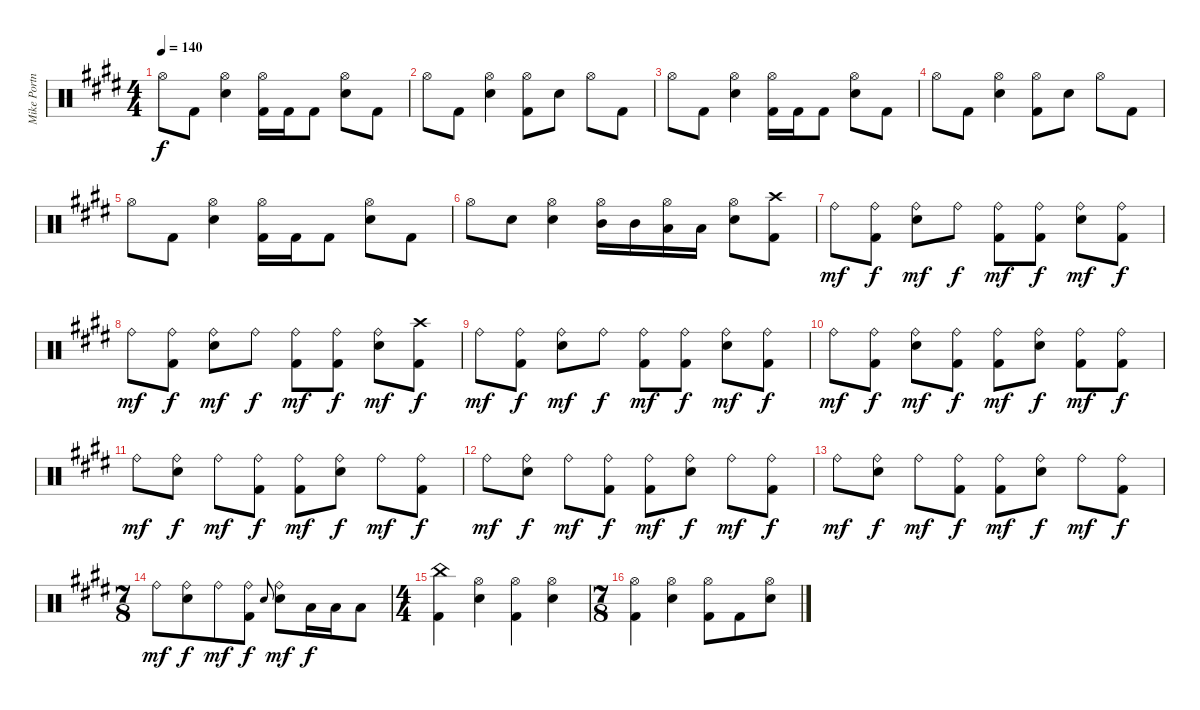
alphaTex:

\track ("Mike Portnoy - Drums" "Mike Portn") {instrument percussion}
\staff {score}
\articulation defaults
\ts (4 4)
\tempo 140
\clef neutral
\ks c#minor "Hi-Hat (open)".8{dy f} "Kick (hit) 2".8
("Electric Snare (hit)" "Hi-Hat (open)").4 ("Kick (hit) 2" "Hi-Hat (open)").16 "Kick (hit) 2".16 "Kick (hit) 2".8 ("Electric Snare (hit)" "Hi-Hat (open)").8 "Kick (hit) 2".8 |
"Hi-Hat (open)".8 "Kick (hit) 2".8 ("Electric Snare (hit)" "Hi-Hat (open)").4 ("Kick (hit) 2" "Hi-Hat (open)").8 "Electric Snare (hit)".8 "Hi-Hat (open)".8 "Kick (hit) 2".8 |
"Hi-Hat (open)".8 "Kick (hit) 2".8 ("Electric Snare (hit)" "Hi-Hat (open)").4 ("Kick (hit) 2" "Hi-Hat (open)").16 "Kick (hit) 2".16 "Kick (hit) 2".8 ("Electric Snare (hit)" "Hi-Hat (open)").8 "Kick (hit) 2".8 |
"Hi-Hat (open)".8 "Kick (hit) 2".8 ("Electric Snare (hit)" "Hi-Hat (open)").4 ("Kick (hit) 2" "Hi-Hat (open)").8 "Electric Snare (hit)".8 "Hi-Hat (open)".8 "Kick (hit) 2".8 |
"Hi-Hat (open)".8 "Kick (hit) 2".8 ("Electric Snare (hit)" "Hi-Hat (open)").4 ("Kick (hit) 2" "Hi-Hat (open)").16 "Kick (hit) 2".16 "Kick (hit) 2".8 ("Electric Snare (hit)" "Hi-Hat (open)").8 "Kick (hit) 2".8 |
"Hi-Hat (open)".8 "Electric Snare (hit)".8 ("Electric Snare (hit)" "Hi-Hat (open)").4 ("Mid Tom (hit)" "Hi-Hat (open)").16 "Mid Tom (hit)".16 ("Low Tom (hit)" "Hi-Hat (open)").16 "Low Tom (hit)".16 ("Electric Snare (hit)" "Hi-Hat (open)").8 ("Kick (hit) 2" "Crash high (hit)").8 |
"Ride (bell)".8{dy mf} ("Ride (bell)" "Kick (hit) 2").8{dy f} ("Ride (bell)" "Electric Snare (hit)").8{dy mf} "Ride (bell)".8{dy f} ("Ride (bell)" "Kick (hit) 2").8{dy mf} ("Ride (bell)" "Kick (hit) 2").8{dy f} ("Ride (bell)" "Electric Snare (hit)").8{dy mf} ("Ride (bell)" "Kick (hit) 2").8{dy f} |
"Ride (bell)".8{dy mf} ("Ride (bell)" "Kick (hit) 2").8{dy f} ("Ride (bell)" "Electric Snare (hit)").8{dy mf} "Ride (bell)".8{dy f} ("Ride (bell)" "Kick (hit) 2").8{dy mf} ("Ride (bell)" "Kick (hit) 2").8{dy f} ("Ride (bell)" "Electric Snare (hit)").8{dy mf} ("Crash high (hit)" "Kick (hit) 2").8{dy f} |
"Ride (bell)".8{dy mf} ("Ride (bell)" "Kick (hit) 2").8{dy f} ("Ride (bell)" "Electric Snare (hit)").8{dy mf} "Ride (bell)".8{dy f} ("Ride (bell)" "Kick (hit) 2").8{dy mf} ("Ride (bell)" "Kick (hit) 2").8{dy f} ("Ride (bell)" "Electric Snare (hit)").8{dy mf} ("Ride (bell)" "Kick (hit) 2").8{dy f} |
"Ride (bell)".8{dy mf} ("Ride (bell)" "Kick (hit) 2").8{dy f} ("Ride (bell)" "Electric Snare (hit)").8{dy mf} ("Ride (bell)" "Kick (hit) 2").8{dy f} ("Ride (bell)" "Kick (hit) 2").8{dy mf} ("Ride (bell)" "Electric Snare (hit)").8{dy f} ("Ride (bell)" "Kick (hit) 2").8{dy mf} ("Ride (bell)" "Kick (hit) 2").8{dy f} |
"Ride (bell)".8{dy mf} ("Ride (bell)" "Electric Snare (hit)").8{dy f} "Ride (bell)".8{dy mf} ("Ride (bell)" "Kick (hit) 2").8{dy f} ("Ride (bell)" "Kick (hit) 2").8{dy mf} ("Ride (bell)" "Electric Snare (hit)").8{dy f} "Ride (bell)".8{dy mf} ("Ride (bell)" "Kick (hit) 2").8{dy f} |
"Ride (bell)".8{dy mf} ("Ride (bell)" "Electric Snare (hit)").8{dy f} "Ride (bell)".8{dy mf} ("Ride (bell)" "Kick (hit) 2").8{dy f} ("Ride (bell)" "Kick (hit) 2").8{dy mf} ("Ride (bell)" "Electric Snare (hit)").8{dy f} "Ride (bell)".8{dy mf} ("Ride (bell)" "Kick (hit) 2").8{dy f} |
"Ride (bell)".8{dy mf} ("Ride (bell)" "Electric Snare (hit)").8{dy f} "Ride (bell)".8{dy mf} ("Ride (bell)" "Kick (hit) 2").8{dy f} ("Ride (bell)" "Kick (hit) 2").8{dy mf} ("Ride (bell)" "Electric Snare (hit)").8{dy f} "Ride (bell)".8{dy mf} ("Ride (bell)" "Kick (hit) 2").8{dy f} |
\ts (7 8)
"Ride (bell)".8{dy mf} ("Ride (bell)" "Electric Snare (hit)").8{dy f} "Ride (bell)".8{dy mf} ("Ride (bell)" "Kick (hit) 2").8{dy f} "Electric Snare (hit)".8{gr onbeat} ("Ride (bell)" "Electric Snare (hit)").8{dy mf} "Low Tom (hit)".16{dy f} "Low Tom (hit)".16 "Low Tom (hit)".8 |
\ts (4 4)
("China (hit)" "Kick (hit) 2").4 ("Hi-Hat (open)" "Electric Snare (hit)").4 ("Hi-Hat (open)" "Kick (hit) 2").4 ("Hi-Hat (open)" "Electric Snare (hit)").4 |
\ts (7 8)
("Hi-Hat (open)" "Kick (hit) 2").4 ("Hi-Hat (open)" "Electric Snare (hit)").4 ("Hi-Hat (open)" "Kick (hit) 2").8 "Kick (hit) 2".8 ("Hi-Hat (open)" "Electric Snare (hit)").8
